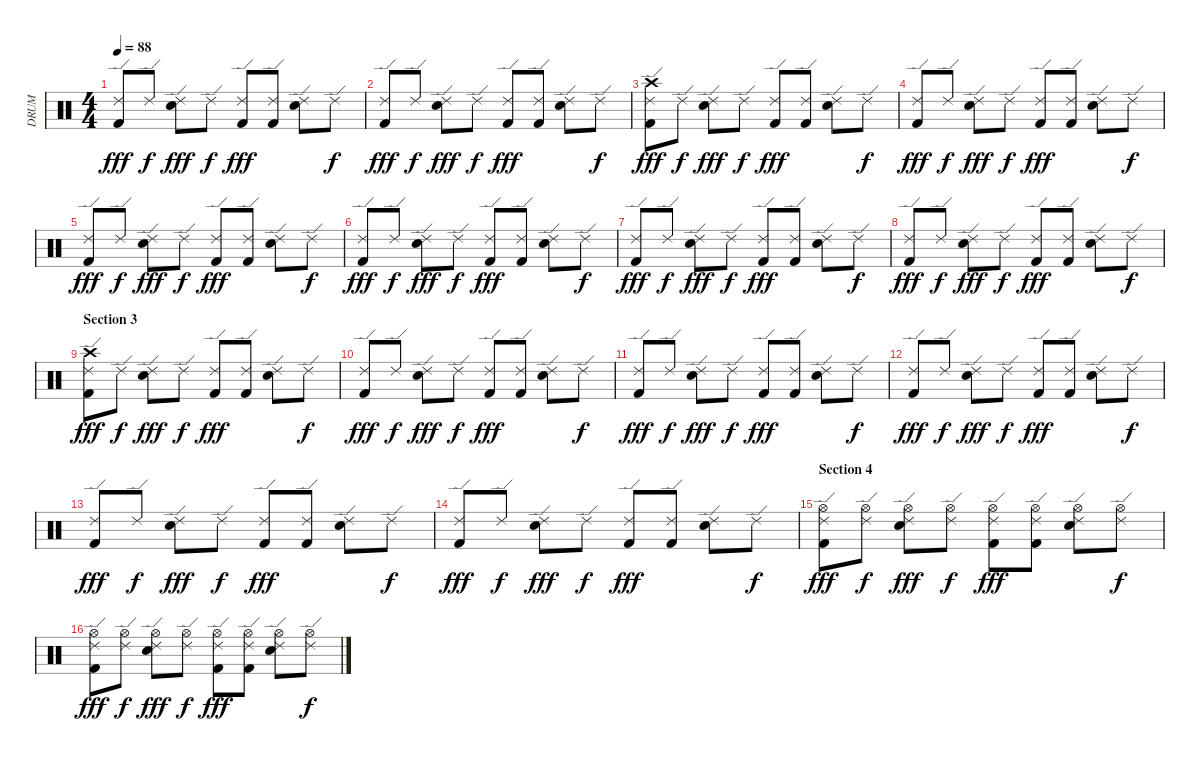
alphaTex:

\track ("DRUM" "DRUM") {instrument percussion}
\staff {score}
\articulation defaults
\ts (4 4)
\tempo 88
\clef neutral
\ks c
("Ride (edge) 2" "Kick (hit) 2").8{dy fff} "Ride (edge) 2".8{dy f} ("Ride (edge) 2" "Snare (hit) 2").8{dy fff} "Ride (edge) 2".8{dy f} ("Ride (edge) 2" "Kick (hit) 2").8{dy fff} ("Ride (edge) 2" "Kick (hit) 2").8 ("Ride (edge) 2" "Snare (hit) 2").8 "Ride (edge) 2".8{dy f} |
("Ride (edge) 2" "Kick (hit) 2").8{dy fff} "Ride (edge) 2".8{dy f} ("Ride (edge) 2" "Snare (hit) 2").8{dy fff} "Ride (edge) 2".8{dy f} ("Ride (edge) 2" "Kick (hit) 2").8{dy fff} ("Ride (edge) 2" "Kick (hit) 2").8 ("Ride (edge) 2" "Snare (hit) 2").8 "Ride (edge) 2".8{dy f} |
("Ride (edge) 2" "Crash high (hit)" "Kick (hit) 2").8{dy fff} "Ride (edge) 2".8{dy f} ("Ride (edge) 2" "Snare (hit) 2").8{dy fff} "Ride (edge) 2".8{dy f} ("Ride (edge) 2" "Kick (hit) 2").8{dy fff} ("Ride (edge) 2" "Kick (hit) 2").8 ("Ride (edge) 2" "Snare (hit) 2").8 "Ride (edge) 2".8{dy f} |
("Ride (edge) 2" "Kick (hit) 2").8{dy fff} "Ride (edge) 2".8{dy f} ("Ride (edge) 2" "Snare (hit) 2").8{dy fff} "Ride (edge) 2".8{dy f} ("Ride (edge) 2" "Kick (hit) 2").8{dy fff} ("Ride (edge) 2" "Kick (hit) 2").8 ("Ride (edge) 2" "Snare (hit) 2").8 "Ride (edge) 2".8{dy f} |
("Ride (edge) 2" "Kick (hit) 2").8{dy fff} "Ride (edge) 2".8{dy f} ("Ride (edge) 2" "Snare (hit) 2").8{dy fff} "Ride (edge) 2".8{dy f} ("Ride (edge) 2" "Kick (hit) 2").8{dy fff} ("Ride (edge) 2" "Kick (hit) 2").8 ("Ride (edge) 2" "Snare (hit) 2").8 "Ride (edge) 2".8{dy f} |
("Ride (edge) 2" "Kick (hit) 2").8{dy fff} "Ride (edge) 2".8{dy f} ("Ride (edge) 2" "Snare (hit) 2").8{dy fff} "Ride (edge) 2".8{dy f} ("Ride (edge) 2" "Kick (hit) 2").8{dy fff} ("Ride (edge) 2" "Kick (hit) 2").8 ("Ride (edge) 2" "Snare (hit) 2").8 "Ride (edge) 2".8{dy f} |
("Ride (edge) 2" "Kick (hit) 2").8{dy fff} "Ride (edge) 2".8{dy f} ("Ride (edge) 2" "Snare (hit) 2").8{dy fff} "Ride (edge) 2".8{dy f} ("Ride (edge) 2" "Kick (hit) 2").8{dy fff} ("Ride (edge) 2" "Kick (hit) 2").8 ("Ride (edge) 2" "Snare (hit) 2").8 "Ride (edge) 2".8{dy f} |
("Ride (edge) 2" "Kick (hit) 2").8{dy fff} "Ride (edge) 2".8{dy f} ("Ride (edge) 2" "Snare (hit) 2").8{dy fff} "Ride (edge) 2".8{dy f} ("Ride (edge) 2" "Kick (hit) 2").8{dy fff} ("Ride (edge) 2" "Kick (hit) 2").8 ("Ride (edge) 2" "Snare (hit) 2").8 "Ride (edge) 2".8{dy f} |
\section ("" "Section 3")
("Ride (edge) 2" "Crash high (hit)" "Kick (hit) 2").8{dy fff} "Ride (edge) 2".8{dy f} ("Ride (edge) 2" "Snare (hit) 2").8{dy fff} "Ride (edge) 2".8{dy f} ("Ride (edge) 2" "Kick (hit) 2").8{dy fff} ("Ride (edge) 2" "Kick (hit) 2").8 ("Ride (edge) 2" "Snare (hit) 2").8 "Ride (edge) 2".8{dy f} |
("Ride (edge) 2" "Kick (hit) 2").8{dy fff} "Ride (edge) 2".8{dy f} ("Ride (edge) 2" "Snare (hit) 2").8{dy fff} "Ride (edge) 2".8{dy f} ("Ride (edge) 2" "Kick (hit) 2").8{dy fff} ("Ride (edge) 2" "Kick (hit) 2").8 ("Ride (edge) 2" "Snare (hit) 2").8 "Ride (edge) 2".8{dy f} |
("Ride (edge) 2" "Kick (hit) 2").8{dy fff} "Ride (edge) 2".8{dy f} ("Ride (edge) 2" "Snare (hit) 2").8{dy fff} "Ride (edge) 2".8{dy f} ("Ride (edge) 2" "Kick (hit) 2").8{dy fff} ("Ride (edge) 2" "Kick (hit) 2").8 ("Ride (edge) 2" "Snare (hit) 2").8 "Ride (edge) 2".8{dy f} |
("Ride (edge) 2" "Kick (hit) 2").8{dy fff} "Ride (edge) 2".8{dy f} ("Ride (edge) 2" "Snare (hit) 2").8{dy fff} "Ride (edge) 2".8{dy f} ("Ride (edge) 2" "Kick (hit) 2").8{dy fff} ("Ride (edge) 2" "Kick (hit) 2").8 ("Ride (edge) 2" "Snare (hit) 2").8 "Ride (edge) 2".8{dy f} |
("Ride (edge) 2" "Kick (hit) 2").8{dy fff} "Ride (edge) 2".8{dy f} ("Ride (edge) 2" "Snare (hit) 2").8{dy fff} "Ride (edge) 2".8{dy f} ("Ride (edge) 2" "Kick (hit) 2").8{dy fff} ("Ride (edge) 2" "Kick (hit) 2").8 ("Ride (edge) 2" "Snare (hit) 2").8 "Ride (edge) 2".8{dy f} |
("Ride (edge) 2" "Kick (hit) 2").8{dy fff} "Ride (edge) 2".8{dy f} ("Ride (edge) 2" "Snare (hit) 2").8{dy fff} "Ride (edge) 2".8{dy f} ("Ride (edge) 2" "Kick (hit) 2").8{dy fff} ("Ride (edge) 2" "Kick (hit) 2").8 ("Ride (edge) 2" "Snare (hit) 2").8 "Ride (edge) 2".8{dy f} |
\section ("" "Section 4")
("Ride (edge) 2" "Hi-Hat (open)" "Kick (hit) 2").8{dy fff} ("Ride (edge) 2" "Hi-Hat (open)").8{dy f} ("Ride (edge) 2" "Hi-Hat (open)" "Snare (hit) 2").8{dy fff} ("Ride (edge) 2" "Hi-Hat (open)").8{dy f} ("Ride (edge) 2" "Hi-Hat (open)" "Kick (hit) 2").8{dy fff} ("Ride (edge) 2" "Hi-Hat (open)" "Kick (hit) 2").8 ("Ride (edge) 2" "Hi-Hat (open)" "Snare (hit) 2").8 ("Ride (edge) 2" "Hi-Hat (open)").8{dy f} |
("Ride (edge) 2" "Hi-Hat (open)" "Kick (hit) 2").8{dy fff} ("Ride (edge) 2" "Hi-Hat (open)").8{dy f} ("Ride (edge) 2" "Hi-Hat (open)" "Snare (hit) 2").8{dy fff} ("Ride (edge) 2" "Hi-Hat (open)").8{dy f} ("Ride (edge) 2" "Hi-Hat (open)" "Kick (hit) 2").8{dy fff} ("Ride (edge) 2" "Hi-Hat (open)" "Kick (hit) 2").8 ("Ride (edge) 2" "Hi-Hat (open)" "Snare (hit) 2").8 ("Ride (edge) 2" "Hi-Hat (open)").8{dy f}
